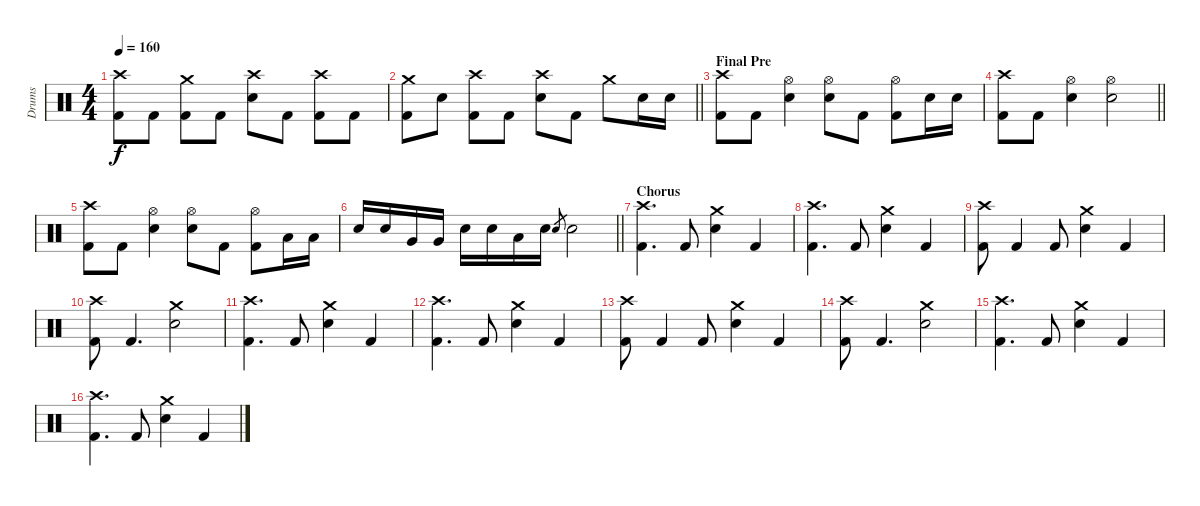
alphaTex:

\track ("Drums" "Drums") {instrument percussion}
\staff {score}
\articulation defaults
\ts (4 4)
\tempo 160
\clef neutral
\ks c
("Kick (hit) 2" "Crash high (hit)").8{dy f} "Kick (hit) 2".8 ("Kick (hit) 2" "Crash medium (hit)").8 "Kick (hit) 2".8 ("Electric Snare (hit)" "Crash high (hit)").8 "Kick (hit) 2".8 ("Kick (hit) 2" "Crash high (hit)").8 "Kick (hit) 2".8 |
\barLineRight lightlight
("Kick (hit) 2" "Crash medium (hit)").8 "Electric Snare (hit)".8 ("Kick (hit) 2" "Crash high (hit)").8 "Kick (hit) 2".8 ("Electric Snare (hit)" "Crash high (hit)").8 "Kick (hit) 2".8 "Crash medium (hit)".8 "Electric Snare (hit)".16 "Electric Snare (hit)".16 |
\section ("" "Final Pre")
("Kick (hit) 2" "Crash high (hit)").8 "Kick (hit) 2".8 ("Electric Snare (hit)" "Hi-Hat (open)").4 ("Electric Snare (hit)" "Hi-Hat (open)").8 "Kick (hit) 2".8 ("Kick (hit) 2" "Hi-Hat (open)").8 "Electric Snare (hit)".16 "Electric Snare (hit)".16 |
\barLineRight lightlight
("Kick (hit) 2" "Crash high (hit)").8 "Kick (hit) 2".8 ("Electric Snare (hit)" "Hi-Hat (open)").4 ("Electric Snare (hit)" "Hi-Hat (open)").2 |
("Kick (hit) 2" "Crash high (hit)").8 "Kick (hit) 2".8 ("Electric Snare (hit)" "Hi-Hat (open)").4 ("Electric Snare (hit)" "Hi-Hat (open)").8 "Kick (hit) 2".8 ("Kick (hit) 2" "Hi-Hat (open)").8 "Low Tom (hit)".16 "Low Tom (hit)".16 |
\barLineRight lightlight "Electric Snare (hit)".16 "Electric Snare (hit)".16 "Very Low Tom (hit)".16 "Very Low Tom (hit)".16 "Electric Snare (hit)".16 "Electric Snare (hit)".16 "Low Tom (hit)".16 "Snare (hit)".16 "Electric Snare (hit)".8{gr} "Electric Snare (hit)".2
|
\section ("" "Chorus")
("Kick (hit) 2" "Crash high (hit)").4{d} "Kick (hit) 2".8 ("Electric Snare (hit)" "Crash medium (hit)").4 "Kick (hit) 2".4 |
("Kick (hit) 2" "Crash high (hit)").4{d} "Kick (hit) 2".8 ("Electric Snare (hit)" "Crash medium (hit)").4 "Kick (hit) 2".4 |
("Kick (hit) 2" "Crash high (hit)").8 "Kick (hit) 2".4 "Kick (hit) 2".8 ("Electric Snare (hit)" "Crash medium (hit)").4 "Kick (hit) 2".4 |
("Kick (hit) 2" "Crash high (hit)").8 "Kick (hit) 2".4{d} ("Electric Snare (hit)" "Crash medium (hit)").2 |
("Kick (hit) 2" "Crash high (hit)").4{d} "Kick (hit) 2".8 ("Electric Snare (hit)" "Crash medium (hit)").4 "Kick (hit) 2".4 |
("Kick (hit) 2" "Crash high (hit)").4{d} "Kick (hit) 2".8 ("Electric Snare (hit)" "Crash medium (hit)").4 "Kick (hit) 2".4 |
("Kick (hit) 2" "Crash high (hit)").8 "Kick (hit) 2".4 "Kick (hit) 2".8 ("Electric Snare (hit)" "Crash medium (hit)").4 "Kick (hit) 2".4 |
("Kick (hit) 2" "Crash high (hit)").8 "Kick (hit) 2".4{d} ("Electric Snare (hit)" "Crash medium (hit)").2 |
("Kick (hit) 2" "Crash high (hit)").4{d} "Kick (hit) 2".8 ("Electric Snare (hit)" "Crash medium (hit)").4 "Kick (hit) 2".4 |
("Kick (hit) 2" "Crash high (hit)").4{d} "Kick (hit) 2".8 ("Electric Snare (hit)" "Crash medium (hit)").4 "Kick (hit) 2".4
